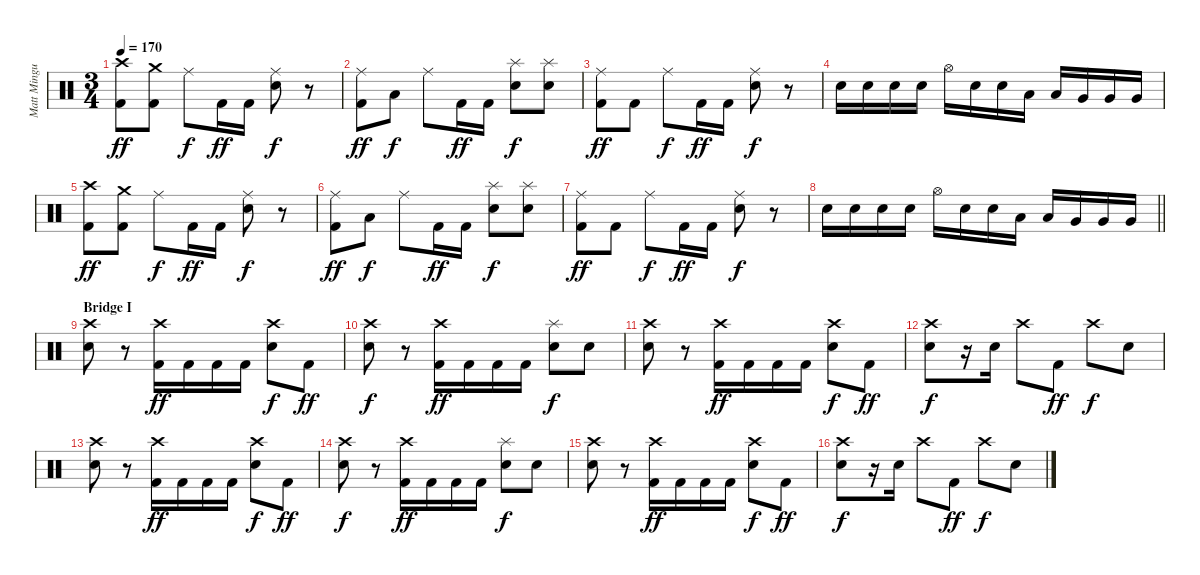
\track ("Matt Mingus (Drum Kit)" "Matt Mingu") {instrument percussion}
\staff {score}
\articulation defaults
\ts (3 4)
\tempo 170
\clef neutral
\ks c
("Crash high (hit)" "Kick (hit) 2").8{dy ff} ("Crash medium (hit)" "Kick (hit) 2").8 "Ride (middle)".8{dy f} "Kick (hit) 2".16{dy ff} "Kick (hit) 2".16 ("Ride (middle)" "Electric Snare (hit)").8{dy f} r.8 |
("Ride (middle)" "Kick (hit) 2").8{dy ff} "Low Tom (hit)".8{dy f} "Ride (middle)".8 "Kick (hit) 2".16{dy ff} "Kick (hit) 2".16 ("Splash (hit)" "Electric Snare (hit)").8{dy f} ("Splash (hit)" "Electric Snare (hit)").8 |
("Ride (middle)" "Kick (hit) 2").8{dy ff} "Kick (hit) 2".8 "Ride (middle)".8{dy f} "Kick (hit) 2".16{dy ff} "Kick (hit) 2".16 ("Ride (middle)" "Electric Snare (hit)").8{dy f} r.8 |
"Electric Snare (hit)".16 "Electric Snare (hit)".16 "Electric Snare (hit)".16 "Electric Snare (hit)".16 "Hi-Hat (open)".16 "Electric Snare (hit)".16 "Electric Snare (hit)".16 "Low Tom (hit)".16 "Low Tom (hit)".16 "Very Low Tom (hit)".16 "Very Low Tom (hit)".16 "Very Low Tom (hit)".16 |
("Crash high (hit)" "Kick (hit) 2").8{dy ff} ("Crash medium (hit)" "Kick (hit) 2").8 "Ride (middle)".8{dy f} "Kick (hit) 2".16{dy ff} "Kick (hit) 2".16 ("Ride (middle)" "Electric Snare (hit)").8{dy f} r.8 |
("Ride (middle)" "Kick (hit) 2").8{dy ff} "Low Tom (hit)".8{dy f} "Ride (middle)".8 "Kick (hit) 2".16{dy ff} "Kick (hit) 2".16 ("Splash (hit)" "Electric Snare (hit)").8{dy f} ("Splash (hit)" "Electric Snare (hit)").8 |
("Ride (middle)" "Kick (hit) 2").8{dy ff} "Kick (hit) 2".8 "Ride (middle)".8{dy f} "Kick (hit) 2".16{dy ff} "Kick (hit) 2".16 ("Ride (middle)" "Electric Snare (hit)").8{dy f} r.8 |
\barLineRight lightlight "Electric Snare (hit)".16 "Electric Snare (hit)".16 "Electric Snare (hit)".16 "Electric Snare (hit)".16 "Hi-Hat (open)".16 "Electric Snare (hit)".16 "Electric Snare (hit)".16 "Low Tom (hit)".16 "Low Tom (hit)".16 "Very Low Tom (hit)".16 "Very Low Tom (hit)".16 "Very Low Tom (hit)".16
|
\section ("" "Bridge I")
("Crash high (hit)" "Electric Snare (hit)").8 r.8 ("Crash high (hit)" "Kick (hit) 2").16{dy ff} "Kick (hit) 2".16 "Kick (hit) 2".16 "Kick (hit) 2".16 ("Crash high (hit)" "Electric Snare (hit)").8{dy f} "Kick (hit) 2".8{dy ff} |
("Crash high (hit)" "Electric Snare (hit)").8{dy f} r.8 ("Crash high (hit)" "Kick (hit) 2").16{dy ff} "Kick (hit) 2".16 "Kick (hit) 2".16 "Kick (hit) 2".16 ("Splash (hit)" "Electric Snare (hit)").8{dy f} "Electric Snare (hit)".8 |
("Crash high (hit)" "Electric Snare (hit)").8 r.8 ("Crash high (hit)" "Kick (hit) 2").16{dy ff} "Kick (hit) 2".16 "Kick (hit) 2".16 "Kick (hit) 2".16 ("Crash high (hit)" "Electric Snare (hit)").8{dy f} "Kick (hit) 2".8{dy ff} |
("Crash high (hit)" "Electric Snare (hit)").8{dy f} r.16 "Electric Snare (hit)".16 "Crash high (hit)".8 "Kick (hit) 2".8{dy ff} "Crash high (hit)".8{dy f} "Electric Snare (hit)".8 |
("Crash high (hit)" "Electric Snare (hit)").8 r.8 ("Crash high (hit)" "Kick (hit) 2").16{dy ff} "Kick (hit) 2".16 "Kick (hit) 2".16 "Kick (hit) 2".16 ("Crash high (hit)" "Electric Snare (hit)").8{dy f} "Kick (hit) 2".8{dy ff} |
("Crash high (hit)" "Electric Snare (hit)").8{dy f} r.8 ("Crash high (hit)" "Kick (hit) 2").16{dy ff} "Kick (hit) 2".16 "Kick (hit) 2".16 "Kick (hit) 2".16 ("Splash (hit)" "Electric Snare (hit)").8{dy f} "Electric Snare (hit)".8 |
("Crash high (hit)" "Electric Snare (hit)").8 r.8 ("Crash high (hit)" "Kick (hit) 2").16{dy ff} "Kick (hit) 2".16 "Kick (hit) 2".16 "Kick (hit) 2".16 ("Crash high (hit)" "Electric Snare (hit)").8{dy f} "Kick (hit) 2".8{dy ff} |
("Crash high (hit)" "Electric Snare (hit)").8{dy f} r.16 "Electric Snare (hit)".16 "Crash high (hit)".8 "Kick (hit) 2".8{dy ff} "Crash high (hit)".8{dy f} "Electric Snare (hit)".8
